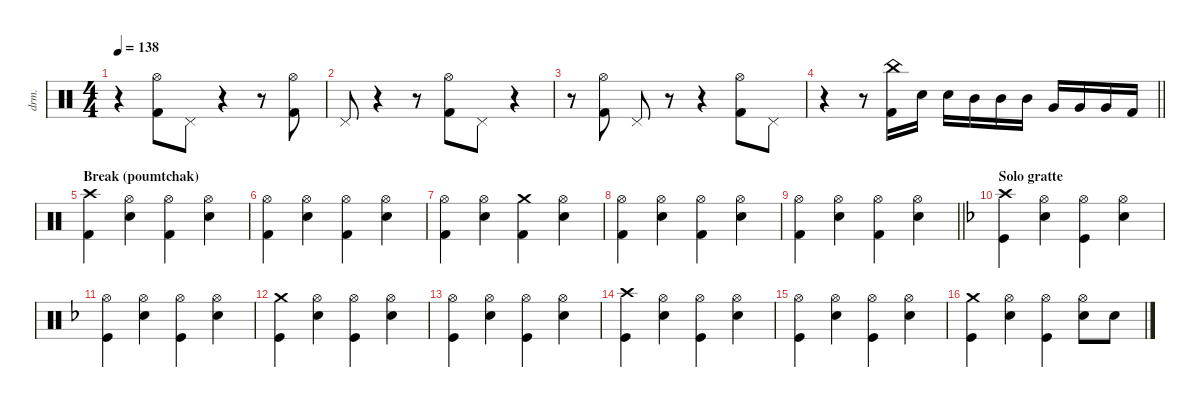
\defaultSystemsLayout 4
\hideDynamics
\bracketExtendMode nobrackets
\track ("Percussions" "drm.") {instrument percussion}
\staff {score}
\articulation defaults
\ts (4 4)
\tempo 138
\clef neutral
\ks aminor
r.4{dy f} ("Kick (hit) 2" "Hi-Hat (open)").8 "Pedal Hi-Hat (hit)".8 r.4 r.8 ("Kick (hit) 2" "Hi-Hat (open)").8 |
"Pedal Hi-Hat (hit)".8 r.4 r.8 ("Kick (hit) 2" "Hi-Hat (open)").8 "Pedal Hi-Hat (hit)".8 r.4 |
r.8 ("Kick (hit) 2" "Hi-Hat (open)").8 "Pedal Hi-Hat (hit)".8 r.8 r.4 ("Kick (hit) 2" "Hi-Hat (open)").8 "Pedal Hi-Hat (hit)".8 |
\barLineRight lightlight
r.4 r.8 ("Kick (hit) 2" "China (hit)").16 "Snare (hit) 2".16 "Snare (hit) 2".16 "Mid Tom (hit)".16 "Mid Tom (hit)".16 "Mid Tom (hit)".16 "Very Low Tom (hit)".16 "Very Low Tom (hit)".16 "Very Low Tom (hit)".16 "Kick (hit) 2".16 |
\section ("" "Break (poumtchak)")
("Crash high (hit)" "Kick (hit) 2").4 ("Hi-Hat (open)" "Snare (hit) 2").4 ("Hi-Hat (open)" "Kick (hit) 2").4 ("Hi-Hat (open)" "Snare (hit) 2").4 |
("Hi-Hat (open)" "Kick (hit) 2").4 ("Hi-Hat (open)" "Snare (hit) 2").4 ("Hi-Hat (open)" "Kick (hit) 2").4 ("Hi-Hat (open)" "Snare (hit) 2").4 |
("Hi-Hat (open)" "Kick (hit) 2").4 ("Hi-Hat (open)" "Snare (hit) 2").4 ("Crash medium (hit)" "Kick (hit) 2").4 ("Hi-Hat (open)" "Snare (hit) 2").4 |
("Hi-Hat (open)" "Kick (hit) 2").4 ("Hi-Hat (open)" "Snare (hit) 2").4 ("Hi-Hat (open)" "Kick (hit) 2").4 ("Hi-Hat (open)" "Snare (hit) 2").4 |
\barLineRight lightlight
("Hi-Hat (open)" "Kick (hit) 2").4 ("Hi-Hat (open)" "Snare (hit) 2").4 ("Hi-Hat (open)" "Kick (hit) 2").4 ("Hi-Hat (open)" "Snare (hit) 2").4 |
\section ("" "Solo gratte")
\ks dminor
("Crash high (hit)"{acc forcenatural} "Kick (hit)"{acc forcenatural}).4 ("Hi-Hat (open)"{acc forcenatural} "Snare (hit) 2"{acc forcenatural}).4 ("Hi-Hat (open)"{acc forcenatural} "Kick (hit)"{acc forcenatural}).4 ("Hi-Hat (open)"{acc forcenatural} "Snare (hit) 2"{acc forcenatural}).4 |
("Hi-Hat (open)"{acc forcenatural} "Kick (hit)"{acc forcenatural}).4 ("Hi-Hat (open)"{acc forcenatural} "Snare (hit) 2"{acc forcenatural}).4 ("Hi-Hat (open)"{acc forcenatural} "Kick (hit)"{acc forcenatural}).4 ("Hi-Hat (open)"{acc forcenatural} "Snare (hit) 2"{acc forcenatural}).4 |
("Crash medium (hit)"{acc forcenatural} "Kick (hit)"{acc forcenatural}).4 ("Hi-Hat (open)"{acc forcenatural} "Snare (hit) 2"{acc forcenatural}).4 ("Hi-Hat (open)"{acc forcenatural} "Kick (hit)"{acc forcenatural}).4 ("Hi-Hat (open)"{acc forcenatural} "Snare (hit) 2"{acc forcenatural}).4 |
("Hi-Hat (open)"{acc forcenatural} "Kick (hit)"{acc forcenatural}).4 ("Hi-Hat (open)"{acc forcenatural} "Snare (hit) 2"{acc forcenatural}).4 ("Hi-Hat (open)"{acc forcenatural} "Kick (hit)"{acc forcenatural}).4 ("Hi-Hat (open)"{acc forcenatural} "Snare (hit) 2"{acc forcenatural}).4 |
("Crash high (hit)"{acc forcenatural} "Kick (hit)"{acc forcenatural}).4 ("Hi-Hat (open)"{acc forcenatural} "Snare (hit) 2"{acc forcenatural}).4 ("Hi-Hat (open)"{acc forcenatural} "Kick (hit)"{acc forcenatural}).4 ("Hi-Hat (open)"{acc forcenatural} "Snare (hit) 2"{acc forcenatural}).4 |
("Hi-Hat (open)"{acc forcenatural} "Kick (hit)"{acc forcenatural}).4 ("Hi-Hat (open)"{acc forcenatural} "Snare (hit) 2"{acc forcenatural}).4 ("Hi-Hat (open)"{acc forcenatural} "Kick (hit)"{acc forcenatural}).4 ("Hi-Hat (open)"{acc forcenatural} "Snare (hit) 2"{acc forcenatural}).4 |
("Crash medium (hit)"{acc forcenatural} "Kick (hit)"{acc forcenatural}).4 ("Hi-Hat (open)"{acc forcenatural} "Snare (hit) 2"{acc forcenatural}).4 ("Hi-Hat (open)"{acc forcenatural} "Kick (hit)"{acc forcenatural}).4 ("Hi-Hat (open)"{acc forcenatural} "Snare (hit) 2"{acc forcenatural}).8 "Snare (hit) 2"{acc forcenatural}.8
